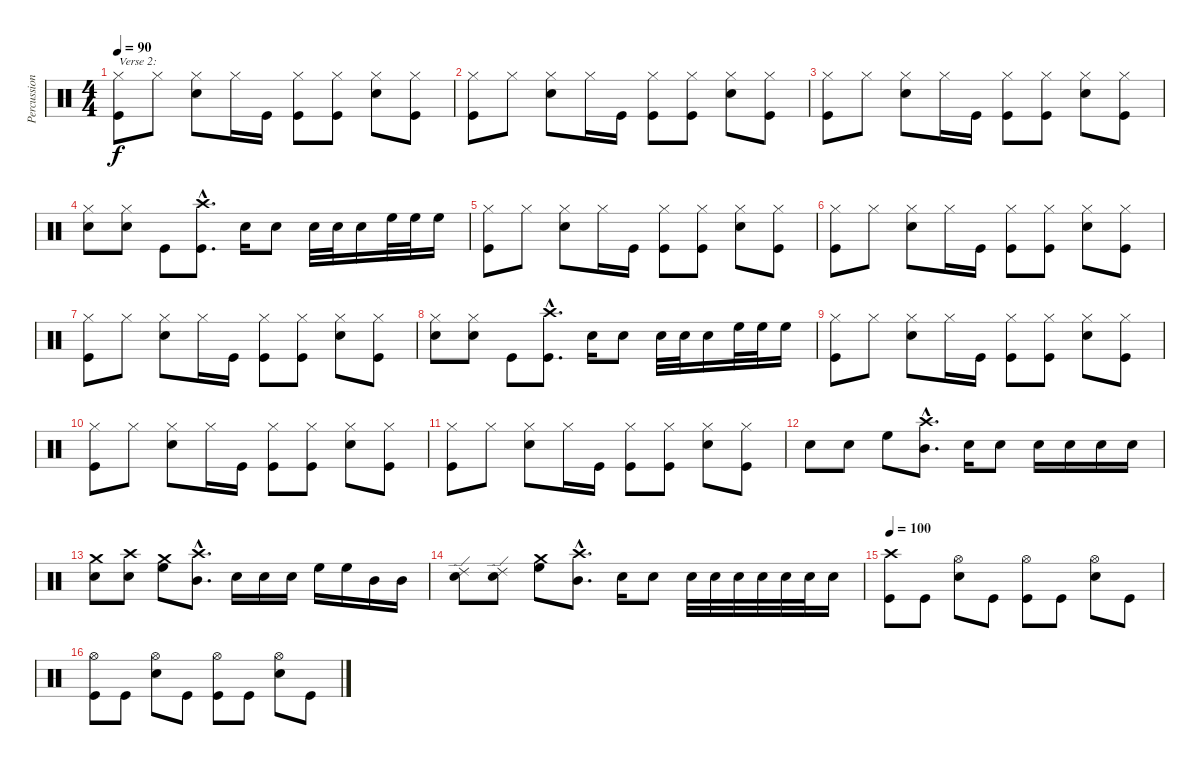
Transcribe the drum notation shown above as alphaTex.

\track ("Percussion" "Percussion") {instrument percussion}
\staff {score}
\articulation defaults
\ts (4 4)
\tempo 90
\clef neutral
\ks c
("Hi-Hat (closed)" "Kick (hit)").8{txt "Verse 2:" dy f} "Hi-Hat (closed)".8 ("Hi-Hat (closed)" "Snare (hit) 2").8 "Hi-Hat (closed)".16 "Kick (hit)".16 ("Hi-Hat (closed)" "Kick (hit)").8 ("Hi-Hat (closed)" "Kick (hit)").8 ("Hi-Hat (closed)" "Snare (hit) 2").8 ("Hi-Hat (closed)" "Kick (hit)").8 |
("Hi-Hat (closed)" "Kick (hit)").8 "Hi-Hat (closed)".8 ("Hi-Hat (closed)" "Snare (hit) 2").8 "Hi-Hat (closed)".16 "Kick (hit)".16 ("Hi-Hat (closed)" "Kick (hit)").8 ("Hi-Hat (closed)" "Kick (hit)").8 ("Hi-Hat (closed)" "Snare (hit) 2").8 ("Hi-Hat (closed)" "Kick (hit)").8 |
("Hi-Hat (closed)" "Kick (hit)").8 "Hi-Hat (closed)".8 ("Hi-Hat (closed)" "Snare (hit) 2").8 "Hi-Hat (closed)".16 "Kick (hit)".16 ("Hi-Hat (closed)" "Kick (hit)").8 ("Hi-Hat (closed)" "Kick (hit)").8 ("Hi-Hat (closed)" "Snare (hit) 2").8 ("Hi-Hat (closed)" "Kick (hit)").8 |
("Hi-Hat (closed)" "Snare (hit) 2").8 ("Hi-Hat (closed)" "Snare (hit) 2").8 "Kick (hit)".8 ("Crash high (hit)"{hac} "Kick (hit)"{hac}).8{d} "Snare (hit) 2".16 "Snare (hit) 2".8 "Snare (hit) 2".32 "Snare (hit) 2".32 "Snare (hit) 2".16 "High Floor Tom (hit)".32 "High Floor Tom (hit)".32 "High Floor Tom (hit)".16 |
("Hi-Hat (closed)" "Kick (hit)").8 "Hi-Hat (closed)".8 ("Hi-Hat (closed)" "Snare (hit) 2").8 "Hi-Hat (closed)".16 "Kick (hit)".16 ("Hi-Hat (closed)" "Kick (hit)").8 ("Hi-Hat (closed)" "Kick (hit)").8 ("Hi-Hat (closed)" "Snare (hit) 2").8 ("Hi-Hat (closed)" "Kick (hit)").8 |
("Hi-Hat (closed)" "Kick (hit)").8 "Hi-Hat (closed)".8 ("Hi-Hat (closed)" "Snare (hit) 2").8 "Hi-Hat (closed)".16 "Kick (hit)".16 ("Hi-Hat (closed)" "Kick (hit)").8 ("Hi-Hat (closed)" "Kick (hit)").8 ("Hi-Hat (closed)" "Snare (hit) 2").8 ("Hi-Hat (closed)" "Kick (hit)").8 |
("Hi-Hat (closed)" "Kick (hit)").8 "Hi-Hat (closed)".8 ("Hi-Hat (closed)" "Snare (hit) 2").8 "Hi-Hat (closed)".16 "Kick (hit)".16 ("Hi-Hat (closed)" "Kick (hit)").8 ("Hi-Hat (closed)" "Kick (hit)").8 ("Hi-Hat (closed)" "Snare (hit) 2").8 ("Hi-Hat (closed)" "Kick (hit)").8 |
("Hi-Hat (closed)" "Snare (hit) 2").8 ("Hi-Hat (closed)" "Snare (hit) 2").8 "Kick (hit)".8 ("Crash high (hit)"{hac} "Kick (hit)"{hac}).8{d} "Snare (hit) 2".16 "Snare (hit) 2".8 "Snare (hit) 2".32 "Snare (hit) 2".32 "Snare (hit) 2".16 "High Floor Tom (hit)".32 "High Floor Tom (hit)".32 "High Floor Tom (hit)".16 |
("Hi-Hat (closed)" "Kick (hit)").8 "Hi-Hat (closed)".8 ("Hi-Hat (closed)" "Snare (hit) 2").8 "Hi-Hat (closed)".16 "Kick (hit)".16 ("Hi-Hat (closed)" "Kick (hit)").8 ("Hi-Hat (closed)" "Kick (hit)").8 ("Hi-Hat (closed)" "Snare (hit) 2").8 ("Hi-Hat (closed)" "Kick (hit)").8 |
("Hi-Hat (closed)" "Kick (hit)").8 "Hi-Hat (closed)".8 ("Hi-Hat (closed)" "Snare (hit) 2").8 "Hi-Hat (closed)".16 "Kick (hit)".16 ("Hi-Hat (closed)" "Kick (hit)").8 ("Hi-Hat (closed)" "Kick (hit)").8 ("Hi-Hat (closed)" "Snare (hit) 2").8 ("Hi-Hat (closed)" "Kick (hit)").8 |
("Hi-Hat (closed)" "Kick (hit)").8 "Hi-Hat (closed)".8 ("Hi-Hat (closed)" "Snare (hit) 2").8 "Hi-Hat (closed)".16 "Kick (hit)".16 ("Hi-Hat (closed)" "Kick (hit)").8 ("Hi-Hat (closed)" "Kick (hit)").8 ("Hi-Hat (closed)" "Snare (hit) 2").8 ("Hi-Hat (closed)" "Kick (hit)").8 |
"Snare (hit) 2".8 "Snare (hit) 2".8 "High Floor Tom (hit)".8 ("Crash high (hit)"{hac} "Mid Tom (hit)"{hac}).8{d} "Snare (hit) 2".16 "Snare (hit) 2".8 "Snare (hit) 2".16 "Snare (hit) 2".16 "Snare (hit) 2".16 "Snare (hit) 2".16 |
("Crash medium (hit)" "Snare (hit) 2").8 ("Crash high (hit)" "Snare (hit) 2").8 ("Crash medium (hit)" "High Floor Tom (hit)").8 ("Crash high (hit)"{hac} "Mid Tom (hit)"{hac}).8{d} "Snare (hit) 2".16 "Snare (hit) 2".16 "Snare (hit) 2".16 "High Floor Tom (hit)".16 "High Floor Tom (hit)".16 "Mid Tom (hit)".16 "Mid Tom (hit)".16 |
("Ride (edge) 2" "Snare (hit) 2").8 ("Ride (edge) 2" "Snare (hit) 2").8 ("Crash medium (hit)" "High Floor Tom (hit)").8 ("Crash high (hit)"{hac} "Mid Tom (hit)"{hac}).8{d} "Snare (hit) 2".16 "Snare (hit) 2".8 "Snare (hit) 2".32 "Snare (hit) 2".32 "Snare (hit) 2".32 "Snare (hit) 2".32 "Snare (hit) 2".32 "Snare (hit) 2".32 "Snare (hit) 2".16 |
\tempo 100
("Crash high (hit)" "Kick (hit)").8 "Kick (hit)".8 ("Hi-Hat (open)" "Snare (hit) 2").8 "Kick (hit)".8 ("Hi-Hat (open)" "Kick (hit)").8 "Kick (hit)".8 ("Hi-Hat (open)" "Snare (hit) 2").8 "Kick (hit)".8 |
("Hi-Hat (open)" "Kick (hit)").8 "Kick (hit)".8 ("Hi-Hat (open)" "Snare (hit) 2").8 "Kick (hit)".8 ("Hi-Hat (open)" "Kick (hit)").8 "Kick (hit)".8 ("Hi-Hat (open)" "Snare (hit) 2").8 "Kick (hit)".8
